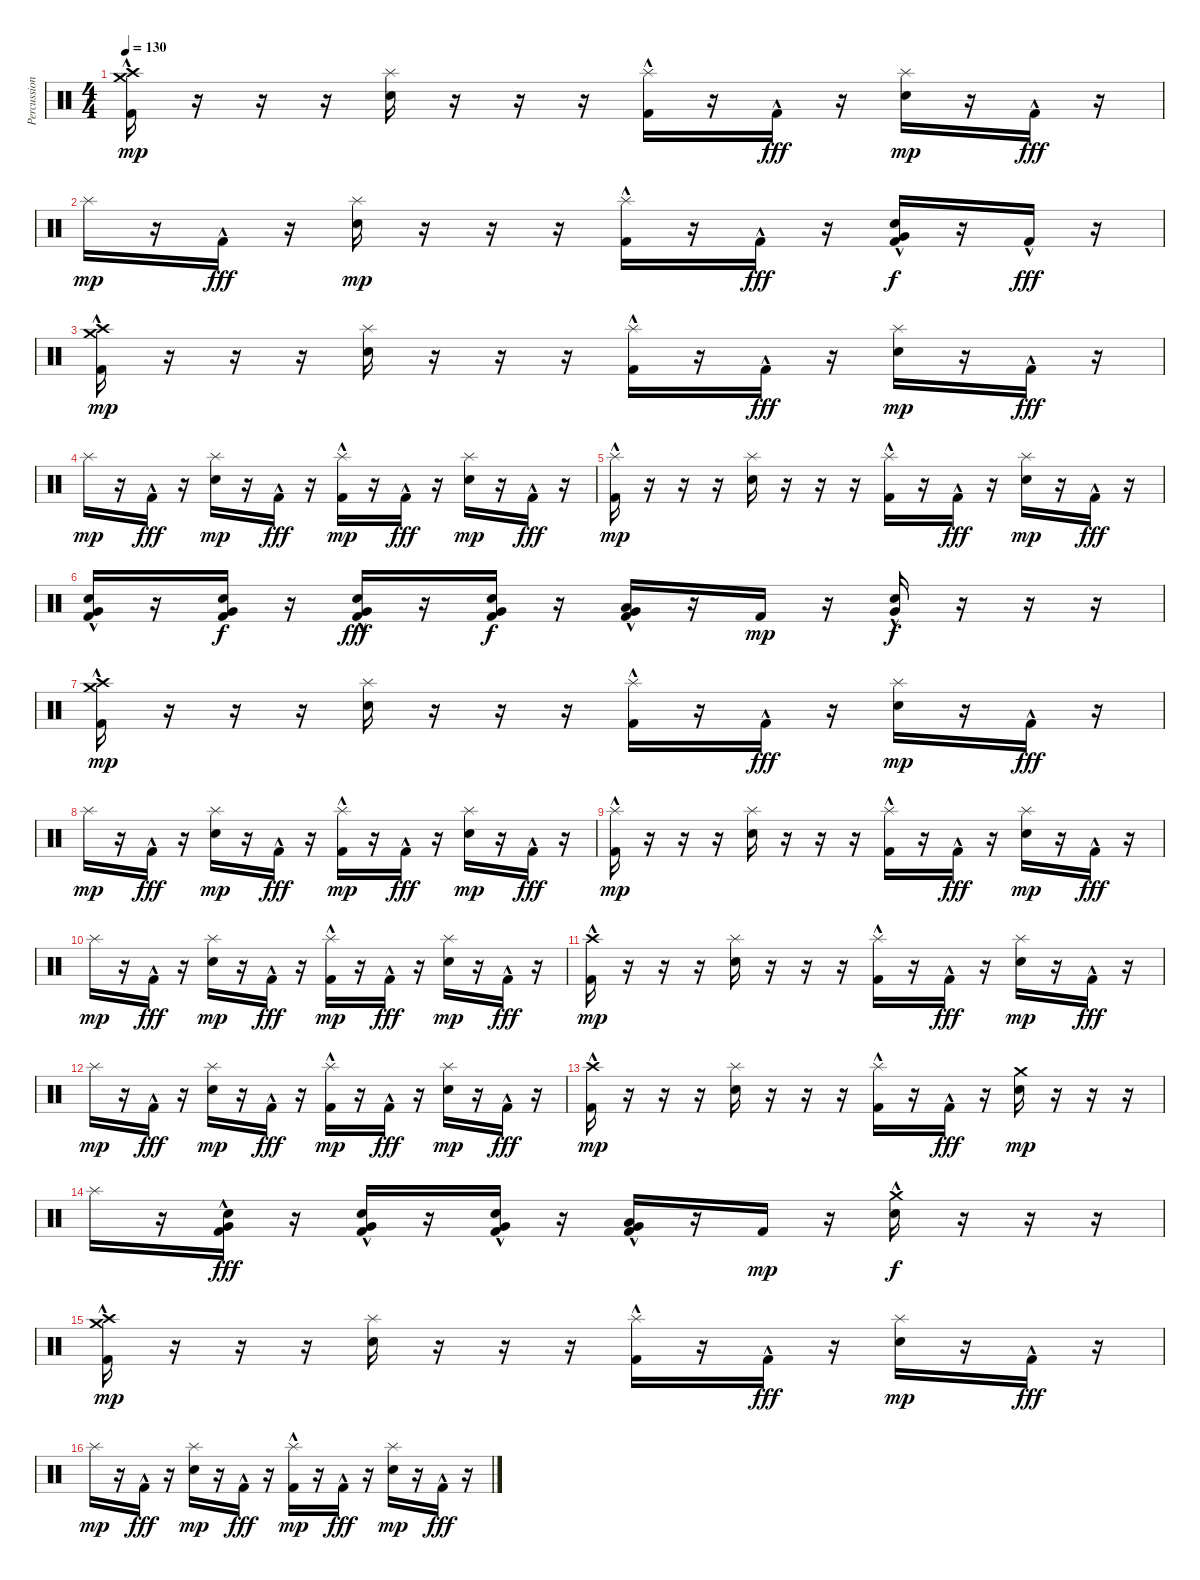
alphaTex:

\track ("Percussion" "Percussion") {instrument percussion}
\staff {score}
\articulation defaults
\ts (4 4)
\tempo 130
\clef neutral
\ks c
("Kick (hit) 2"{hac} "Crash medium (hit)" "Crash high (hit)").16{dy mp} r.16 r.16 r.16 ("Electric Snare (hit)" "Splash (hit)").16 r.16 r.16 r.16 ("Kick (hit) 2"{hac} "Splash (hit)").16 r.16 "Kick (hit) 2"{hac}.16{dy fff} r.16 ("Electric Snare (hit)" "Splash (hit)").16{dy mp} r.16 "Kick (hit) 2"{hac}.16{dy fff} r.16 |
"Splash (hit)".16{dy mp} r.16 "Kick (hit) 2"{hac}.16{dy fff} r.16 ("Electric Snare (hit)" "Splash (hit)").16{dy mp} r.16 r.16 r.16 ("Kick (hit) 2"{hac} "Splash (hit)").16 r.16 "Kick (hit) 2"{hac}.16{dy fff} r.16 ("Kick (hit) 2"{hac} "Electric Snare (hit)" "Very Low Tom (hit)"{hac}).16{dy f} r.16 "Kick (hit) 2"{hac}.16{dy fff} r.16 |
("Kick (hit) 2"{hac} "Crash medium (hit)" "Crash high (hit)").16{dy mp} r.16 r.16 r.16 ("Electric Snare (hit)" "Splash (hit)").16 r.16 r.16 r.16 ("Kick (hit) 2"{hac} "Splash (hit)").16 r.16 "Kick (hit) 2"{hac}.16{dy fff} r.16 ("Electric Snare (hit)" "Splash (hit)").16{dy mp} r.16 "Kick (hit) 2"{hac}.16{dy fff} r.16 |
"Splash (hit)".16{dy mp} r.16 "Kick (hit) 2"{hac}.16{dy fff} r.16 ("Electric Snare (hit)" "Splash (hit)").16{dy mp} r.16 "Kick (hit) 2"{hac}.16{dy fff} r.16 ("Kick (hit) 2"{hac} "Splash (hit)").16{dy mp} r.16 "Kick (hit) 2"{hac}.16{dy fff} r.16 ("Electric Snare (hit)" "Splash (hit)").16{dy mp} r.16 "Kick (hit) 2"{hac}.16{dy fff} r.16 |
("Kick (hit) 2"{hac} "Splash (hit)").16{dy mp} r.16 r.16 r.16 ("Electric Snare (hit)" "Splash (hit)").16 r.16 r.16 r.16 ("Kick (hit) 2"{hac} "Splash (hit)").16 r.16 "Kick (hit) 2"{hac}.16{dy fff} r.16 ("Electric Snare (hit)" "Splash (hit)").16{dy mp} r.16 "Kick (hit) 2"{hac}.16{dy fff} r.16{volume 5} |
("Kick (hit) 2"{hac} "Electric Snare (hit)"{hac} "Very Low Tom (hit)"{hac}).16{volume 8} r.16 ("Kick (hit) 2" "Electric Snare (hit)" "Very Low Tom (hit)").16{dy f} r.16 ("Kick (hit) 2"{hac} "Electric Snare (hit)"{hac} "Very Low Tom (hit)"{hac}).16{dy fff} r.16 ("Kick (hit) 2" "Electric Snare (hit)" "Very Low Tom (hit)").16{dy f} r.16 ("Kick (hit) 2"{hac} "Low Tom (hit)"{hac} "Very Low Tom (hit)"{hac}).16 r.16 "Kick (hit) 2".16{dy mp} r.16 ("Electric Snare (hit)"{hac} "Very Low Tom (hit)"{hac}).16{dy f} r.16 r.16 r.16 |
("Kick (hit) 2"{hac} "Crash medium (hit)" "Crash high (hit)").16{dy mp} r.16 r.16 r.16 ("Electric Snare (hit)" "Splash (hit)").16 r.16 r.16 r.16 ("Kick (hit) 2"{hac} "Splash (hit)").16 r.16 "Kick (hit) 2"{hac}.16{dy fff} r.16 ("Electric Snare (hit)" "Splash (hit)").16{dy mp} r.16 "Kick (hit) 2"{hac}.16{dy fff} r.16 |
"Splash (hit)".16{dy mp} r.16 "Kick (hit) 2"{hac}.16{dy fff} r.16 ("Electric Snare (hit)" "Splash (hit)").16{dy mp} r.16 "Kick (hit) 2"{hac}.16{dy fff} r.16 ("Kick (hit) 2"{hac} "Splash (hit)").16{dy mp} r.16 "Kick (hit) 2"{hac}.16{dy fff} r.16 ("Electric Snare (hit)" "Splash (hit)").16{dy mp} r.16 "Kick (hit) 2"{hac}.16{dy fff} r.16 |
("Kick (hit) 2"{hac} "Splash (hit)").16{dy mp} r.16 r.16 r.16 ("Electric Snare (hit)" "Splash (hit)").16 r.16 r.16 r.16 ("Kick (hit) 2"{hac} "Splash (hit)").16 r.16 "Kick (hit) 2"{hac}.16{dy fff} r.16 ("Electric Snare (hit)" "Splash (hit)").16{dy mp} r.16 "Kick (hit) 2"{hac}.16{dy fff} r.16 |
"Splash (hit)".16{dy mp} r.16 "Kick (hit) 2"{hac}.16{dy fff} r.16 ("Electric Snare (hit)" "Splash (hit)").16{dy mp} r.16 "Kick (hit) 2"{hac}.16{dy fff} r.16 ("Kick (hit) 2"{hac} "Splash (hit)").16{dy mp} r.16 "Kick (hit) 2"{hac}.16{dy fff} r.16 ("Electric Snare (hit)" "Splash (hit)").16{dy mp} r.16 "Kick (hit) 2"{hac}.16{dy fff} r.16 |
("Kick (hit) 2"{hac} "Crash high (hit)").16{dy mp} r.16 r.16 r.16 ("Electric Snare (hit)" "Splash (hit)").16 r.16 r.16 r.16 ("Kick (hit) 2"{hac} "Splash (hit)").16 r.16 "Kick (hit) 2"{hac}.16{dy fff} r.16 ("Electric Snare (hit)" "Splash (hit)").16{dy mp} r.16 "Kick (hit) 2"{hac}.16{dy fff} r.16 |
"Splash (hit)".16{dy mp} r.16 "Kick (hit) 2"{hac}.16{dy fff} r.16 ("Electric Snare (hit)" "Splash (hit)").16{dy mp} r.16 "Kick (hit) 2"{hac}.16{dy fff} r.16 ("Kick (hit) 2"{hac} "Splash (hit)").16{dy mp} r.16 "Kick (hit) 2"{hac}.16{dy fff} r.16 ("Electric Snare (hit)" "Splash (hit)").16{dy mp} r.16 "Kick (hit) 2"{hac}.16{dy fff} r.16 |
("Kick (hit) 2"{hac} "Crash high (hit)").16{dy mp} r.16 r.16 r.16 ("Electric Snare (hit)" "Splash (hit)").16 r.16 r.16 r.16 ("Kick (hit) 2"{hac} "Splash (hit)").16 r.16 "Kick (hit) 2"{hac}.16{dy fff} r.16 ("Electric Snare (hit)" "Crash medium (hit)").16{dy mp} r.16 r.16 r.16 |
"Splash (hit)".16 r.16 ("Kick (hit) 2"{hac} "Electric Snare (hit)"{hac} "Very Low Tom (hit)"{hac}).16{dy fff} r.16 ("Kick (hit) 2"{hac} "Electric Snare (hit)"{hac} "Very Low Tom (hit)"{hac}).16 r.16 ("Kick (hit) 2"{hac} "Electric Snare (hit)"{hac} "Very Low Tom (hit)"{hac}).16 r.16 ("Kick (hit) 2"{hac} "Low Tom (hit)"{hac} "Very Low Tom (hit)"{hac}).16 r.16 "Kick (hit) 2".16{dy mp} r.16 ("Electric Snare (hit)"{hac} "Crash medium (hit)"{hac}).16{dy f} r.16 r.16 r.16 |
("Kick (hit) 2"{hac} "Crash medium (hit)" "Crash high (hit)").16{dy mp} r.16 r.16 r.16 ("Electric Snare (hit)" "Splash (hit)").16 r.16 r.16 r.16 ("Kick (hit) 2"{hac} "Splash (hit)").16 r.16 "Kick (hit) 2"{hac}.16{dy fff} r.16 ("Electric Snare (hit)" "Splash (hit)").16{dy mp} r.16 "Kick (hit) 2"{hac}.16{dy fff} r.16 |
"Splash (hit)".16{dy mp} r.16 "Kick (hit) 2"{hac}.16{dy fff} r.16 ("Electric Snare (hit)" "Splash (hit)").16{dy mp} r.16 "Kick (hit) 2"{hac}.16{dy fff} r.16 ("Kick (hit) 2"{hac} "Splash (hit)").16{dy mp} r.16 "Kick (hit) 2"{hac}.16{dy fff} r.16 ("Electric Snare (hit)" "Splash (hit)").16{dy mp} r.16 "Kick (hit) 2"{hac}.16{dy fff} r.16
